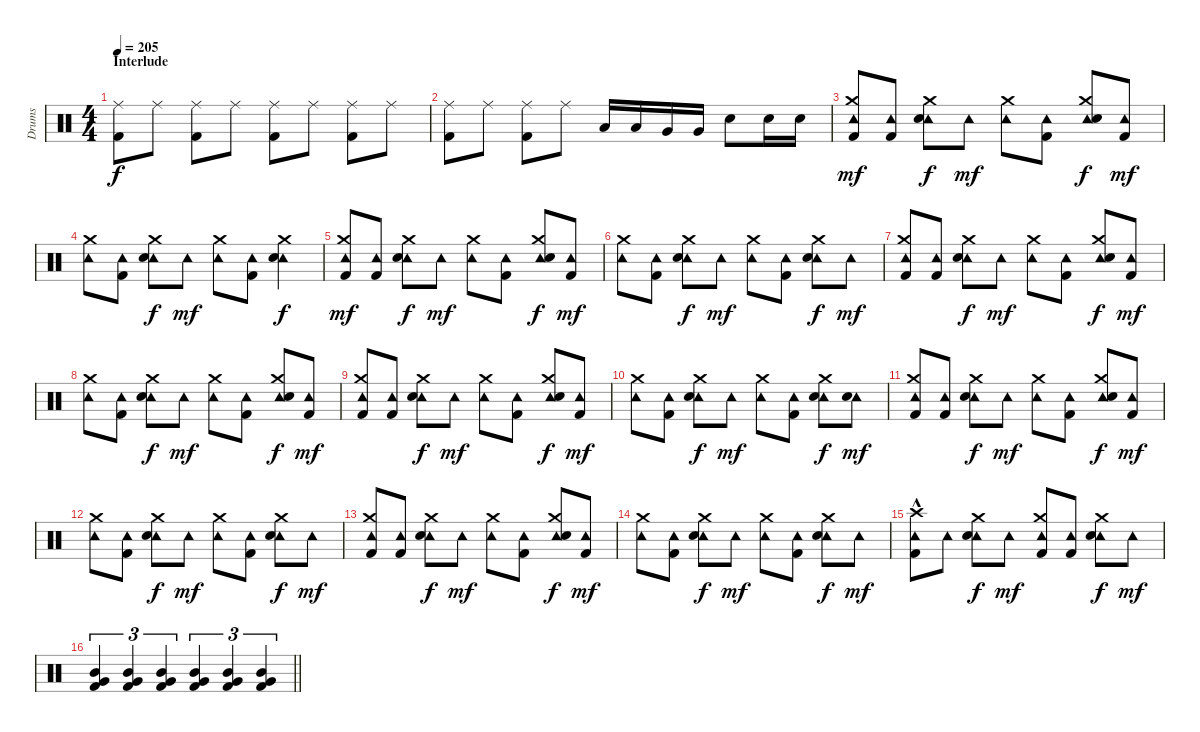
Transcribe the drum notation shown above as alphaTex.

\track ("Drums" "Drums") {instrument percussion}
\staff {score}
\articulation defaults
\ts (4 4)
\section ("" "Interlude")
\tempo 205
\clef neutral
\ks c
("Ride (middle)" "Kick (hit) 2").8{dy f} "Ride (middle)".8 ("Ride (middle)" "Kick (hit) 2").8 "Ride (middle)".8 ("Ride (middle)" "Kick (hit) 2").8 "Ride (middle)".8 ("Ride (middle)" "Kick (hit) 2").8 "Ride (middle)".8 |
("Ride (middle)" "Kick (hit) 2").8 "Ride (middle)".8 ("Ride (middle)" "Kick (hit) 2").8 "Ride (middle)".8 "Low Tom (hit)".16 "Low Tom (hit)".16 "Very Low Tom (hit)".16 "Very Low Tom (hit)".16 "Electric Snare (hit)".8 "Electric Snare (hit)".16 "Electric Snare (hit)".16 |
("Crash medium (hit)" "Tambourine (hit)" "Kick (hit) 2").8{dy mf} ("Tambourine (hit)" "Kick (hit) 2").8 ("Crash medium (hit)" "Tambourine (hit)" "Electric Snare (hit)").8{dy f} "Tambourine (hit)".8{dy mf} ("Crash medium (hit)" "Tambourine (hit)").8 ("Tambourine (hit)" "Kick (hit) 2").8 ("Crash medium (hit)" "Tambourine (hit)" "Electric Snare (hit)").8{dy f} ("Tambourine (hit)" "Kick (hit) 2").8{dy mf} |
("Crash medium (hit)" "Tambourine (hit)").8 ("Tambourine (hit)" "Kick (hit) 2").8 ("Crash medium (hit)" "Tambourine (hit)" "Electric Snare (hit)").8{dy f} "Tambourine (hit)".8{dy mf} ("Crash medium (hit)" "Tambourine (hit)").8 ("Tambourine (hit)" "Kick (hit) 2").8 ("Crash medium (hit)" "Tambourine (hit)" "Electric Snare (hit)").4{dy f} |
("Crash medium (hit)" "Tambourine (hit)" "Kick (hit) 2").8{dy mf} ("Tambourine (hit)" "Kick (hit) 2").8 ("Crash medium (hit)" "Tambourine (hit)" "Electric Snare (hit)").8{dy f} "Tambourine (hit)".8{dy mf} ("Crash medium (hit)" "Tambourine (hit)").8 ("Tambourine (hit)" "Kick (hit) 2").8 ("Crash medium (hit)" "Tambourine (hit)" "Electric Snare (hit)").8{dy f} ("Tambourine (hit)" "Kick (hit) 2").8{dy mf} |
("Crash medium (hit)" "Tambourine (hit)").8 ("Tambourine (hit)" "Kick (hit) 2").8 ("Crash medium (hit)" "Tambourine (hit)" "Electric Snare (hit)").8{dy f} "Tambourine (hit)".8{dy mf} ("Crash medium (hit)" "Tambourine (hit)").8 ("Tambourine (hit)" "Kick (hit) 2").8 ("Crash medium (hit)" "Tambourine (hit)" "Electric Snare (hit)").8{dy f} "Tambourine (hit)".8{dy mf} |
("Crash medium (hit)" "Tambourine (hit)" "Kick (hit) 2").8 ("Tambourine (hit)" "Kick (hit) 2").8 ("Crash medium (hit)" "Tambourine (hit)" "Electric Snare (hit)").8{dy f} "Tambourine (hit)".8{dy mf} ("Crash medium (hit)" "Tambourine (hit)").8 ("Tambourine (hit)" "Kick (hit) 2").8 ("Crash medium (hit)" "Tambourine (hit)" "Electric Snare (hit)").8{dy f} ("Tambourine (hit)" "Kick (hit) 2").8{dy mf} |
("Crash medium (hit)" "Tambourine (hit)").8 ("Tambourine (hit)" "Kick (hit) 2").8 ("Crash medium (hit)" "Tambourine (hit)" "Electric Snare (hit)").8{dy f} "Tambourine (hit)".8{dy mf} ("Crash medium (hit)" "Tambourine (hit)").8 ("Tambourine (hit)" "Kick (hit) 2").8 ("Crash medium (hit)" "Tambourine (hit)" "Electric Snare (hit)").8{dy f} ("Tambourine (hit)" "Kick (hit) 2").8{dy mf} |
("Crash medium (hit)" "Tambourine (hit)" "Kick (hit) 2").8 ("Tambourine (hit)" "Kick (hit) 2").8 ("Crash medium (hit)" "Tambourine (hit)" "Electric Snare (hit)").8{dy f} "Tambourine (hit)".8{dy mf} ("Crash medium (hit)" "Tambourine (hit)").8 ("Tambourine (hit)" "Kick (hit) 2").8 ("Crash medium (hit)" "Tambourine (hit)" "Electric Snare (hit)").8{dy f} ("Tambourine (hit)" "Kick (hit) 2").8{dy mf} |
("Crash medium (hit)" "Tambourine (hit)").8 ("Tambourine (hit)" "Kick (hit) 2").8 ("Crash medium (hit)" "Tambourine (hit)" "Electric Snare (hit)").8{dy f} "Tambourine (hit)".8{dy mf} ("Crash medium (hit)" "Tambourine (hit)").8 ("Tambourine (hit)" "Kick (hit) 2").8 ("Crash medium (hit)" "Tambourine (hit)" "Electric Snare (hit)").8{dy f} ("Tambourine (hit)" "Electric Snare (hit)").8{dy mf} |
("Crash medium (hit)" "Tambourine (hit)" "Kick (hit) 2").8 ("Tambourine (hit)" "Kick (hit) 2").8 ("Crash medium (hit)" "Tambourine (hit)" "Electric Snare (hit)").8{dy f} "Tambourine (hit)".8{dy mf} ("Crash medium (hit)" "Tambourine (hit)").8 ("Tambourine (hit)" "Kick (hit) 2").8 ("Crash medium (hit)" "Tambourine (hit)" "Electric Snare (hit)").8{dy f} ("Tambourine (hit)" "Kick (hit) 2").8{dy mf} |
("Crash medium (hit)" "Tambourine (hit)").8 ("Tambourine (hit)" "Kick (hit) 2").8 ("Crash medium (hit)" "Tambourine (hit)" "Electric Snare (hit)").8{dy f} "Tambourine (hit)".8{dy mf} ("Crash medium (hit)" "Tambourine (hit)").8 ("Tambourine (hit)" "Kick (hit) 2").8 ("Crash medium (hit)" "Tambourine (hit)" "Electric Snare (hit)").8{dy f} "Tambourine (hit)".8{dy mf} |
("Crash medium (hit)" "Tambourine (hit)" "Kick (hit) 2").8 ("Tambourine (hit)" "Kick (hit) 2").8 ("Crash medium (hit)" "Tambourine (hit)" "Electric Snare (hit)").8{dy f} "Tambourine (hit)".8{dy mf} ("Crash medium (hit)" "Tambourine (hit)").8 ("Tambourine (hit)" "Kick (hit) 2").8 ("Crash medium (hit)" "Tambourine (hit)" "Electric Snare (hit)").8{dy f} ("Tambourine (hit)" "Kick (hit) 2").8{dy mf} |
("Crash medium (hit)" "Tambourine (hit)").8 ("Tambourine (hit)" "Kick (hit) 2").8 ("Crash medium (hit)" "Tambourine (hit)" "Electric Snare (hit)").8{dy f} "Tambourine (hit)".8{dy mf} ("Crash medium (hit)" "Tambourine (hit)").8 ("Tambourine (hit)" "Kick (hit) 2").8 ("Crash medium (hit)" "Tambourine (hit)" "Electric Snare (hit)").8{dy f} "Tambourine (hit)".8{dy mf} |
("Crash high (hit)"{hac} "Tambourine (hit)" "Kick (hit) 2").8 "Tambourine (hit)".8 ("Crash medium (hit)" "Tambourine (hit)" "Electric Snare (hit)").8{dy f} "Tambourine (hit)".8{dy mf} ("Crash medium (hit)" "Tambourine (hit)" "Kick (hit) 2").8 ("Tambourine (hit)" "Kick (hit) 2").8 ("Crash medium (hit)" "Tambourine (hit)" "Electric Snare (hit)").8{dy f} "Tambourine (hit)".8{dy mf} |
\barLineRight lightlight
("Mid Tom (hit)" "Very Low Tom (hit)" "Kick (hit) 2").4{tu (3 2)} ("Mid Tom (hit)" "Very Low Tom (hit)" "Kick (hit) 2").4{tu (3 2)} ("Mid Tom (hit)" "Very Low Tom (hit)" "Kick (hit) 2").4{tu (3 2)} ("Mid Tom (hit)" "Very Low Tom (hit)" "Kick (hit) 2").4{tu (3 2)} ("Mid Tom (hit)" "Very Low Tom (hit)" "Kick (hit) 2").4{tu (3 2)} ("Mid Tom (hit)" "Very Low Tom (hit)" "Kick (hit) 2").4{tu (3 2)}
